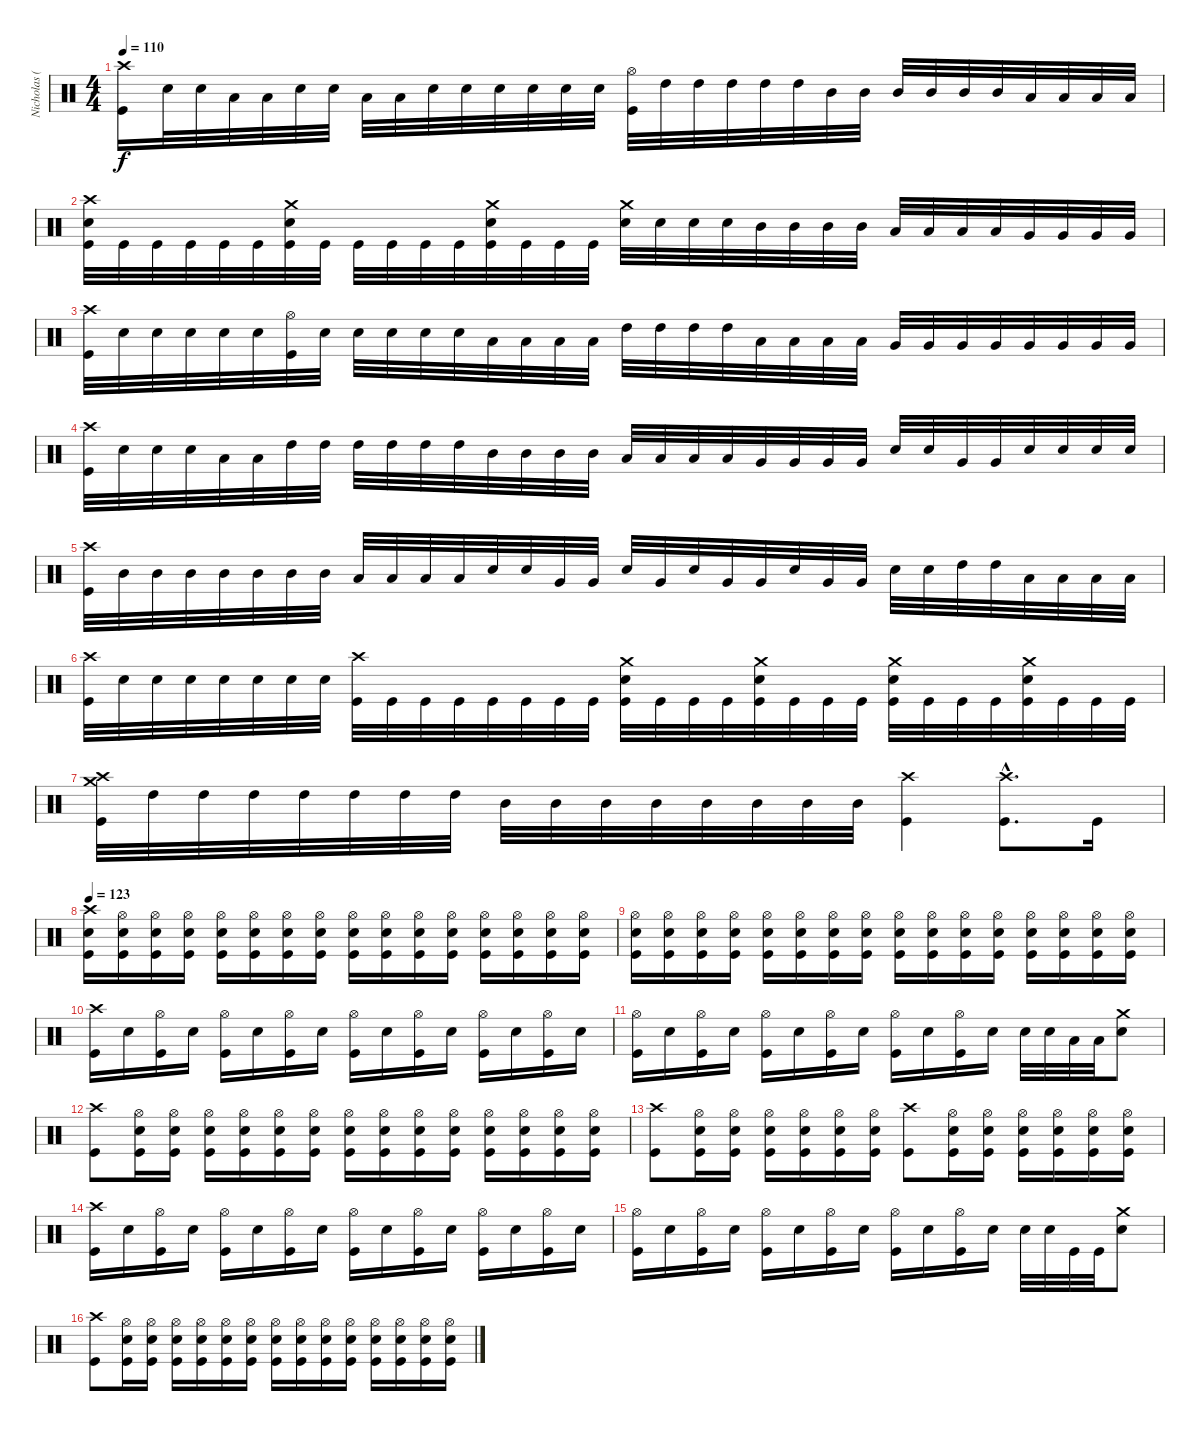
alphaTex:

\track ("Nicholas (Drums)" "Nicholas (") {instrument percussion}
\staff {score}
\articulation defaults
\ts (4 4)
\tempo 110
\clef neutral
\ks c
("Crash high (hit)" "Kick (hit)").16{dy f} "Electric Snare (hit)".32 "Electric Snare (hit)".32 "Low Tom (hit)".32 "Low Tom (hit)".32 "Electric Snare (hit)".32 "Electric Snare (hit)".32 "Low Tom (hit)".32 "Low Tom (hit)".32 "Electric Snare (hit)".32 "Electric Snare (hit)".32 "Electric Snare (hit)".32 "Electric Snare (hit)".32 "Electric Snare (hit)".32 "Electric Snare (hit)".32 ("Hi-Hat (open)" "Kick (hit)").32 "High Tom (hit)".32 "High Tom (hit)".32 "High Tom (hit)".32 "High Tom (hit)".32 "High Tom (hit)".32 "Mid Tom (hit)".32 "Mid Tom (hit)".32 "Mid Tom (hit)".32 "Mid Tom (hit)".32 "Mid Tom (hit)".32 "Mid Tom (hit)".32 "Low Tom (hit)".32 "Low Tom (hit)".32 "Low Tom (hit)".32 "Low Tom (hit)".32 |
("Crash high (hit)" "Electric Snare (hit)" "Kick (hit)").32 "Kick (hit)".32 "Kick (hit)".32 "Kick (hit)".32 "Kick (hit)".32 "Kick (hit)".32 ("Crash medium (hit)" "Electric Snare (hit)" "Kick (hit)").32 "Kick (hit)".32 "Kick (hit)".32 "Kick (hit)".32 "Kick (hit)".32 "Kick (hit)".32 ("Crash medium (hit)" "Electric Snare (hit)" "Kick (hit)").32 "Kick (hit)".32 "Kick (hit)".32 "Kick (hit)".32 ("Crash medium (hit)" "Electric Snare (hit)").32 "Electric Snare (hit)".32 "Electric Snare (hit)".32 "Electric Snare (hit)".32 "Mid Tom (hit)".32 "Mid Tom (hit)".32 "Mid Tom (hit)".32 "Mid Tom (hit)".32 "Low Tom (hit)".32 "Low Tom (hit)".32 "Low Tom (hit)".32 "Low Tom (hit)".32 "Very Low Tom (hit)".32 "Very Low Tom (hit)".32 "Very Low Tom (hit)".32 "Very Low Tom (hit)".32 |
("Crash high (hit)" "Kick (hit)").32 "Electric Snare (hit)".32 "Electric Snare (hit)".32 "Electric Snare (hit)".32 "Electric Snare (hit)".32 "Electric Snare (hit)".32 ("Hi-Hat (open)" "Kick (hit)").32 "Electric Snare (hit)".32 "Electric Snare (hit)".32 "Electric Snare (hit)".32 "Electric Snare (hit)".32 "Electric Snare (hit)".32 "Low Tom (hit)".32 "Low Tom (hit)".32 "Low Tom (hit)".32 "Low Tom (hit)".32 "High Tom (hit)".32 "High Tom (hit)".32 "High Tom (hit)".32 "High Tom (hit)".32 "Low Tom (hit)".32 "Low Tom (hit)".32 "Low Tom (hit)".32 "Low Tom (hit)".32 "Very Low Tom (hit)".32 "Very Low Tom (hit)".32 "Very Low Tom (hit)".32 "Very Low Tom (hit)".32 "Very Low Tom (hit)".32 "Very Low Tom (hit)".32 "Very Low Tom (hit)".32 "Very Low Tom (hit)".32 |
("Crash high (hit)" "Kick (hit)").32 "Electric Snare (hit)".32 "Electric Snare (hit)".32 "Electric Snare (hit)".32 "Low Tom (hit)".32 "Low Tom (hit)".32 "High Tom (hit)".32 "High Tom (hit)".32 "High Tom (hit)".32 "High Tom (hit)".32 "High Tom (hit)".32 "High Tom (hit)".32 "Mid Tom (hit)".32 "Mid Tom (hit)".32 "Mid Tom (hit)".32 "Mid Tom (hit)".32 "Low Tom (hit)".32 "Low Tom (hit)".32 "Low Tom (hit)".32 "Low Tom (hit)".32 "Very Low Tom (hit)".32 "Very Low Tom (hit)".32 "Very Low Tom (hit)".32 "Very Low Tom (hit)".32 "Electric Snare (hit)".32 "Electric Snare (hit)".32 "Very Low Tom (hit)".32 "Very Low Tom (hit)".32 "Electric Snare (hit)".32 "Electric Snare (hit)".32 "Electric Snare (hit)".32 "Electric Snare (hit)".32 |
("Crash high (hit)" "Kick (hit)").32 "Mid Tom (hit)".32 "Mid Tom (hit)".32 "Mid Tom (hit)".32 "Mid Tom (hit)".32 "Mid Tom (hit)".32 "Mid Tom (hit)".32 "Mid Tom (hit)".32 "Low Tom (hit)".32 "Low Tom (hit)".32 "Low Tom (hit)".32 "Low Tom (hit)".32 "Electric Snare (hit)".32 "Electric Snare (hit)".32 "Very Low Tom (hit)".32 "Very Low Tom (hit)".32 "Electric Snare (hit)".32 "Very Low Tom (hit)".32 "Electric Snare (hit)".32 "Very Low Tom (hit)".32 "Very Low Tom (hit)".32 "Electric Snare (hit)".32 "Very Low Tom (hit)".32 "Very Low Tom (hit)".32 "Electric Snare (hit)".32 "Electric Snare (hit)".32 "High Tom (hit)".32 "High Tom (hit)".32 "Low Tom (hit)".32 "Low Tom (hit)".32 "Low Tom (hit)".32 "Low Tom (hit)".32 |
("Crash high (hit)" "Kick (hit)").32 "Electric Snare (hit)".32 "Electric Snare (hit)".32 "Electric Snare (hit)".32 "Electric Snare (hit)".32 "Electric Snare (hit)".32 "Electric Snare (hit)".32 "Electric Snare (hit)".32 ("Crash high (hit)" "Kick (hit)").32 "Kick (hit)".32 "Kick (hit)".32 "Kick (hit)".32 "Kick (hit)".32 "Kick (hit)".32 "Kick (hit)".32 "Kick (hit)".32 ("Crash medium (hit)" "Electric Snare (hit)" "Kick (hit)").32 "Kick (hit)".32 "Kick (hit)".32 "Kick (hit)".32 ("Crash medium (hit)" "Electric Snare (hit)" "Kick (hit)").32 "Kick (hit)".32 "Kick (hit)".32 "Kick (hit)".32 ("Crash medium (hit)" "Electric Snare (hit)" "Kick (hit)").32 "Kick (hit)".32 "Kick (hit)".32 "Kick (hit)".32 ("Crash medium (hit)" "Electric Snare (hit)" "Kick (hit)").32 "Kick (hit)".32 "Kick (hit)".32 "Kick (hit)".32 |
("Crash high (hit)" "Crash medium (hit)" "Kick (hit)").32 "High Tom (hit)".32 "High Tom (hit)".32 "High Tom (hit)".32 "High Tom (hit)".32 "High Tom (hit)".32 "High Tom (hit)".32 "High Tom (hit)".32 "Mid Tom (hit)".32 "Mid Tom (hit)".32 "Mid Tom (hit)".32 "Mid Tom (hit)".32 "Mid Tom (hit)".32 "Mid Tom (hit)".32 "Mid Tom (hit)".32 "Mid Tom (hit)".32 ("Crash high (hit)" "Kick (hit)").4 ("Crash high (hit)"{hac} "Kick (hit)"{hac}).8{d} "Kick (hit)".16 |
\tempo 123
("Crash high (hit)" "Electric Snare (hit)" "Kick (hit)").16 ("Hi-Hat (open)" "Electric Snare (hit)" "Kick (hit)").16 ("Hi-Hat (open)" "Electric Snare (hit)" "Kick (hit)").16 ("Hi-Hat (open)" "Electric Snare (hit)" "Kick (hit)").16 ("Hi-Hat (open)" "Electric Snare (hit)" "Kick (hit)").16 ("Hi-Hat (open)" "Electric Snare (hit)" "Kick (hit)").16 ("Hi-Hat (open)" "Electric Snare (hit)" "Kick (hit)").16 ("Hi-Hat (open)" "Electric Snare (hit)" "Kick (hit)").16 ("Hi-Hat (open)" "Electric Snare (hit)" "Kick (hit)").16 ("Hi-Hat (open)" "Electric Snare (hit)" "Kick (hit)").16 ("Hi-Hat (open)" "Electric Snare (hit)" "Kick (hit)").16 ("Hi-Hat (open)" "Electric Snare (hit)" "Kick (hit)").16 ("Hi-Hat (open)" "Electric Snare (hit)" "Kick (hit)").16 ("Hi-Hat (open)" "Electric Snare (hit)" "Kick (hit)").16 ("Hi-Hat (open)" "Electric Snare (hit)" "Kick (hit)").16 ("Hi-Hat (open)" "Electric Snare (hit)" "Kick (hit)").16 |
("Hi-Hat (open)" "Electric Snare (hit)" "Kick (hit)").16 ("Hi-Hat (open)" "Electric Snare (hit)" "Kick (hit)").16 ("Hi-Hat (open)" "Electric Snare (hit)" "Kick (hit)").16 ("Hi-Hat (open)" "Electric Snare (hit)" "Kick (hit)").16 ("Hi-Hat (open)" "Electric Snare (hit)" "Kick (hit)").16 ("Hi-Hat (open)" "Electric Snare (hit)" "Kick (hit)").16 ("Hi-Hat (open)" "Electric Snare (hit)" "Kick (hit)").16 ("Hi-Hat (open)" "Electric Snare (hit)" "Kick (hit)").16 ("Hi-Hat (open)" "Electric Snare (hit)" "Kick (hit)").16 ("Hi-Hat (open)" "Electric Snare (hit)" "Kick (hit)").16 ("Hi-Hat (open)" "Electric Snare (hit)" "Kick (hit)").16 ("Hi-Hat (open)" "Electric Snare (hit)" "Kick (hit)").16 ("Hi-Hat (open)" "Electric Snare (hit)" "Kick (hit)").16 ("Hi-Hat (open)" "Electric Snare (hit)" "Kick (hit)").16 ("Hi-Hat (open)" "Electric Snare (hit)" "Kick (hit)").16 ("Hi-Hat (open)" "Electric Snare (hit)" "Kick (hit)").16 |
("Crash high (hit)" "Kick (hit)").16 "Electric Snare (hit)".16 ("Hi-Hat (open)" "Kick (hit)").16 "Electric Snare (hit)".16 ("Hi-Hat (open)" "Kick (hit)").16 "Electric Snare (hit)".16 ("Hi-Hat (open)" "Kick (hit)").16 "Electric Snare (hit)".16 ("Hi-Hat (open)" "Kick (hit)").16 "Electric Snare (hit)".16 ("Hi-Hat (open)" "Kick (hit)").16 "Electric Snare (hit)".16 ("Hi-Hat (open)" "Kick (hit)").16 "Electric Snare (hit)".16 ("Hi-Hat (open)" "Kick (hit)").16 "Electric Snare (hit)".16 |
("Hi-Hat (open)" "Kick (hit)").16 "Electric Snare (hit)".16 ("Hi-Hat (open)" "Kick (hit)").16 "Electric Snare (hit)".16 ("Hi-Hat (open)" "Kick (hit)").16 "Electric Snare (hit)".16 ("Hi-Hat (open)" "Kick (hit)").16 "Electric Snare (hit)".16 ("Hi-Hat (open)" "Kick (hit)").16 "Electric Snare (hit)".16 ("Hi-Hat (open)" "Kick (hit)").16 "Electric Snare (hit)".16 "Electric Snare (hit)".32 "Electric Snare (hit)".32 "Low Tom (hit)".32 "Low Tom (hit)".32 ("Crash medium (hit)" "Electric Snare (hit)").8 |
("Crash high (hit)" "Kick (hit)").8 ("Hi-Hat (open)" "Electric Snare (hit)" "Kick (hit)").16 ("Hi-Hat (open)" "Electric Snare (hit)" "Kick (hit)").16 ("Hi-Hat (open)" "Electric Snare (hit)" "Kick (hit)").16 ("Hi-Hat (open)" "Electric Snare (hit)" "Kick (hit)").16 ("Hi-Hat (open)" "Electric Snare (hit)" "Kick (hit)").16 ("Hi-Hat (open)" "Electric Snare (hit)" "Kick (hit)").16 ("Hi-Hat (open)" "Electric Snare (hit)" "Kick (hit)").16 ("Hi-Hat (open)" "Electric Snare (hit)" "Kick (hit)").16 ("Hi-Hat (open)" "Electric Snare (hit)" "Kick (hit)").16 ("Hi-Hat (open)" "Electric Snare (hit)" "Kick (hit)").16 ("Hi-Hat (open)" "Electric Snare (hit)" "Kick (hit)").16 ("Hi-Hat (open)" "Electric Snare (hit)" "Kick (hit)").16 ("Hi-Hat (open)" "Electric Snare (hit)" "Kick (hit)").16 ("Hi-Hat (open)" "Electric Snare (hit)" "Kick (hit)").16 |
("Crash high (hit)" "Kick (hit)").8 ("Hi-Hat (open)" "Electric Snare (hit)" "Kick (hit)").16 ("Hi-Hat (open)" "Electric Snare (hit)" "Kick (hit)").16 ("Hi-Hat (open)" "Electric Snare (hit)" "Kick (hit)").16 ("Hi-Hat (open)" "Electric Snare (hit)" "Kick (hit)").16 ("Hi-Hat (open)" "Electric Snare (hit)" "Kick (hit)").16 ("Hi-Hat (open)" "Electric Snare (hit)" "Kick (hit)").16 ("Crash high (hit)" "Kick (hit)").8 ("Hi-Hat (open)" "Electric Snare (hit)" "Kick (hit)").16 ("Hi-Hat (open)" "Electric Snare (hit)" "Kick (hit)").16 ("Hi-Hat (open)" "Electric Snare (hit)" "Kick (hit)").16 ("Hi-Hat (open)" "Electric Snare (hit)" "Kick (hit)").16 ("Hi-Hat (open)" "Electric Snare (hit)" "Kick (hit)").16 ("Hi-Hat (open)" "Electric Snare (hit)" "Kick (hit)").16 |
("Crash high (hit)" "Kick (hit)").16 "Electric Snare (hit)".16 ("Hi-Hat (open)" "Kick (hit)").16 "Electric Snare (hit)".16 ("Hi-Hat (open)" "Kick (hit)").16 "Electric Snare (hit)".16 ("Hi-Hat (open)" "Kick (hit)").16 "Electric Snare (hit)".16 ("Hi-Hat (open)" "Kick (hit)").16 "Electric Snare (hit)".16 ("Hi-Hat (open)" "Kick (hit)").16 "Electric Snare (hit)".16 ("Hi-Hat (open)" "Kick (hit)").16 "Electric Snare (hit)".16 ("Hi-Hat (open)" "Kick (hit)").16 "Electric Snare (hit)".16 |
("Hi-Hat (open)" "Kick (hit)").16 "Electric Snare (hit)".16 ("Hi-Hat (open)" "Kick (hit)").16 "Electric Snare (hit)".16 ("Hi-Hat (open)" "Kick (hit)").16 "Electric Snare (hit)".16 ("Hi-Hat (open)" "Kick (hit)").16 "Electric Snare (hit)".16 ("Hi-Hat (open)" "Kick (hit)").16 "Electric Snare (hit)".16 ("Hi-Hat (open)" "Kick (hit)").16 "Electric Snare (hit)".16 "Electric Snare (hit)".32 "Electric Snare (hit)".32 "Kick (hit)".32 "Kick (hit)".32 ("Crash medium (hit)" "Electric Snare (hit)").8 |
("Crash high (hit)" "Kick (hit)").8 ("Hi-Hat (open)" "Electric Snare (hit)" "Kick (hit)").16 ("Hi-Hat (open)" "Electric Snare (hit)" "Kick (hit)").16 ("Hi-Hat (open)" "Electric Snare (hit)" "Kick (hit)").16 ("Hi-Hat (open)" "Electric Snare (hit)" "Kick (hit)").16 ("Hi-Hat (open)" "Electric Snare (hit)" "Kick (hit)").16 ("Hi-Hat (open)" "Electric Snare (hit)" "Kick (hit)").16 ("Hi-Hat (open)" "Electric Snare (hit)" "Kick (hit)").16 ("Hi-Hat (open)" "Electric Snare (hit)" "Kick (hit)").16 ("Hi-Hat (open)" "Electric Snare (hit)" "Kick (hit)").16 ("Hi-Hat (open)" "Electric Snare (hit)" "Kick (hit)").16 ("Hi-Hat (open)" "Electric Snare (hit)" "Kick (hit)").16 ("Hi-Hat (open)" "Electric Snare (hit)" "Kick (hit)").16 ("Hi-Hat (open)" "Electric Snare (hit)" "Kick (hit)").16 ("Hi-Hat (open)" "Electric Snare (hit)" "Kick (hit)").16
